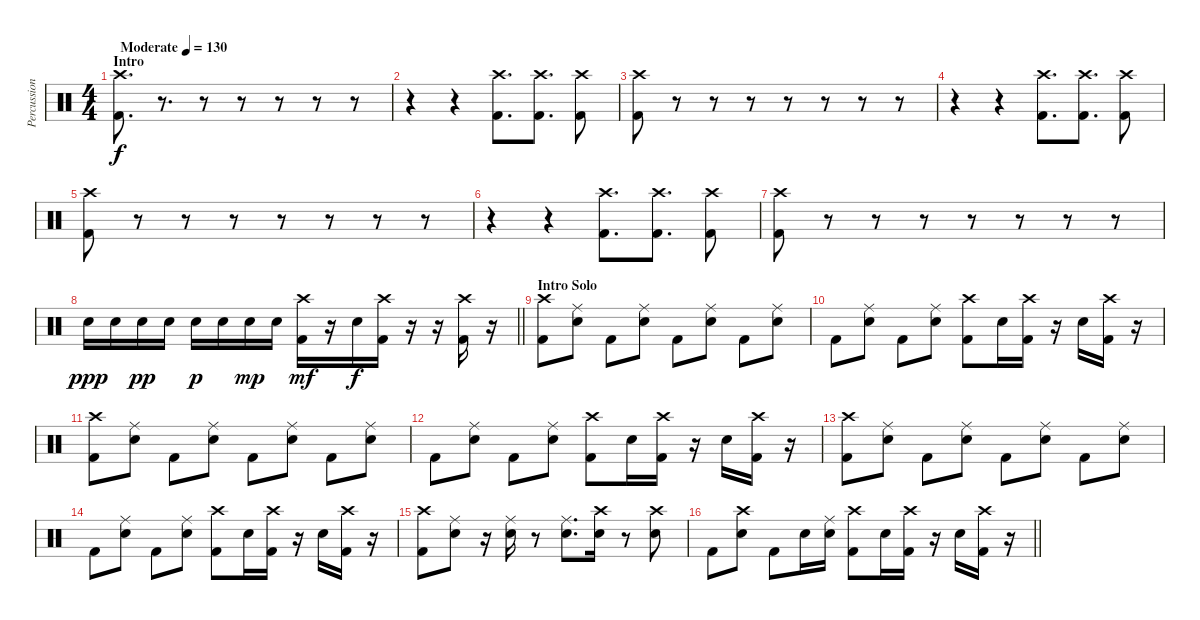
\track ("Percussion" "Percussion") {instrument percussion}
\staff {score}
\articulation defaults
\ts (4 4)
\section ("" "Intro")
\tempo (130 "Moderate")
\clef neutral
\ks c
("Crash high (hit)" "Kick (hit) 2").8{d dy f} r.8{d volume 0} r.8 r.8 r.8 r.8 r.8 |
r.4 r.4{volume 13} ("Crash high (hit)" "Kick (hit) 2").8{d} ("Crash high (hit)" "Kick (hit) 2").8{d} ("Crash high (hit)" "Kick (hit) 2").8 |
("Crash high (hit)" "Kick (hit) 2").8 r.8 r.8{volume 0} r.8 r.8 r.8 r.8 r.8 |
r.4 r.4{volume 13} ("Crash high (hit)" "Kick (hit) 2").8{d} ("Crash high (hit)" "Kick (hit) 2").8{d} ("Crash high (hit)" "Kick (hit) 2").8 |
("Crash high (hit)" "Kick (hit) 2").8 r.8 r.8{volume 0} r.8 r.8 r.8 r.8 r.8 |
r.4 r.4{volume 13} ("Crash high (hit)" "Kick (hit) 2").8{d} ("Crash high (hit)" "Kick (hit) 2").8{d} ("Crash high (hit)" "Kick (hit) 2").8 |
("Crash high (hit)" "Kick (hit) 2").8 r.8 r.8{volume 0} r.8 r.8 r.8 r.8 r.8{volume 13} |
\barLineRight lightlight "Snare (hit) 2".16{dy ppp} "Snare (hit) 2".16 "Snare (hit) 2".16{dy pp} "Snare (hit) 2".16 "Snare (hit) 2".16{dy p} "Snare (hit) 2".16 "Snare (hit) 2".16{dy mp} "Snare (hit) 2".16
("Crash high (hit)" "Kick (hit) 2").16{dy mf} r.16 "Snare (hit) 2".16{dy f} ("Crash high (hit)" "Kick (hit) 2").16 r.16 r.16 ("Crash high (hit)" "Kick (hit) 2").16 r.16 |
\section ("" "Intro Solo")
("Crash high (hit)" "Kick (hit) 2").8 ("Ride (middle)" "Snare (hit) 2").8 "Kick (hit) 2".8 ("Ride (middle)" "Snare (hit) 2").8 "Kick (hit) 2".8 ("Ride (middle)" "Snare (hit) 2").8 "Kick (hit) 2".8 ("Ride (middle)" "Snare (hit) 2").8 |
"Kick (hit) 2".8 ("Ride (middle)" "Snare (hit) 2").8 "Kick (hit) 2".8 ("Ride (middle)" "Snare (hit) 2").8 ("Crash high (hit)" "Kick (hit) 2").8 "Snare (hit) 2".16 ("Crash high (hit)" "Kick (hit) 2").16 r.16 "Snare (hit) 2".16 ("Crash high (hit)" "Kick (hit) 2").16 r.16 |
("Crash high (hit)" "Kick (hit) 2").8 ("Ride (middle)" "Snare (hit) 2").8 "Kick (hit) 2".8 ("Ride (middle)" "Snare (hit) 2").8 "Kick (hit) 2".8 ("Ride (middle)" "Snare (hit) 2").8 "Kick (hit) 2".8 ("Ride (middle)" "Snare (hit) 2").8 |
"Kick (hit) 2".8 ("Ride (middle)" "Snare (hit) 2").8 "Kick (hit) 2".8 ("Ride (middle)" "Snare (hit) 2").8 ("Crash high (hit)" "Kick (hit) 2").8 "Snare (hit) 2".16 ("Crash high (hit)" "Kick (hit) 2").16 r.16 "Snare (hit) 2".16 ("Crash high (hit)" "Kick (hit) 2").16 r.16 |
("Crash high (hit)" "Kick (hit) 2").8 ("Ride (middle)" "Snare (hit) 2").8 "Kick (hit) 2".8 ("Ride (middle)" "Snare (hit) 2").8 "Kick (hit) 2".8 ("Ride (middle)" "Snare (hit) 2").8 "Kick (hit) 2".8 ("Ride (middle)" "Snare (hit) 2").8 |
"Kick (hit) 2".8 ("Ride (middle)" "Snare (hit) 2").8 "Kick (hit) 2".8 ("Ride (middle)" "Snare (hit) 2").8 ("Crash high (hit)" "Kick (hit) 2").8 "Snare (hit) 2".16 ("Crash high (hit)" "Kick (hit) 2").16 r.16 "Snare (hit) 2".16 ("Crash high (hit)" "Kick (hit) 2").16 r.16 |
("Crash high (hit)" "Kick (hit) 2").8 ("Ride (middle)" "Snare (hit) 2").8 r.16 ("Ride (middle)" "Snare (hit) 2").16 r.8 ("Ride (middle)" "Snare (hit) 2").8{d} ("Crash high (hit)" "Snare (hit) 2").16 r.8 ("Crash high (hit)" "Snare (hit) 2").8 |
\barLineRight lightlight "Kick (hit) 2".8
("Crash high (hit)" "Snare (hit) 2").8 "Kick (hit) 2".8 "Snare (hit) 2".16 ("Ride (middle)" "Snare (hit) 2").16 ("Crash high (hit)" "Kick (hit) 2").8 "Snare (hit) 2".16 ("Crash high (hit)" "Kick (hit) 2").16 r.16 "Snare (hit) 2".16 ("Crash high (hit)" "Kick (hit) 2").16 r.16
